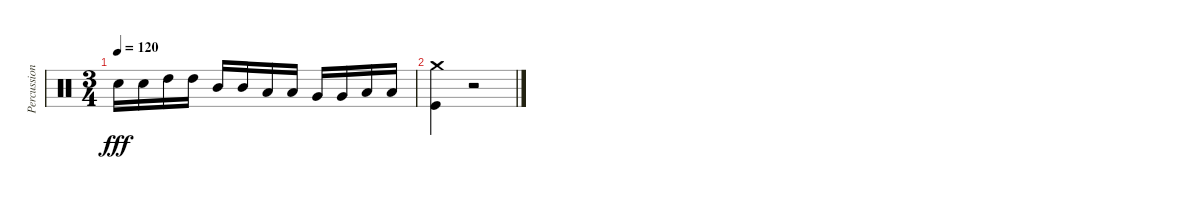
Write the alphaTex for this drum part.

\track ("Percussion" "Percussion") {instrument percussion}
\staff {score}
\articulation defaults
\ts (3 4)
\tempo 120
\clef neutral
\ks c "Electric Snare (hit)".16{dy fff} "Electric Snare (hit)".16 "High Tom (hit)".16 "High Tom (hit)".16 "Mid Tom (hit)".16 "Mid Tom (hit)".16 "Low Tom (hit)".16 "Low Tom (hit)".16 "Very Low Tom (hit)".16 "Very Low Tom (hit)".16 "Low Floor Tom (hit)".16 "Low Floor Tom (hit)".16
|
("Crash medium (hit)" "Kick (hit)").4 r.2
